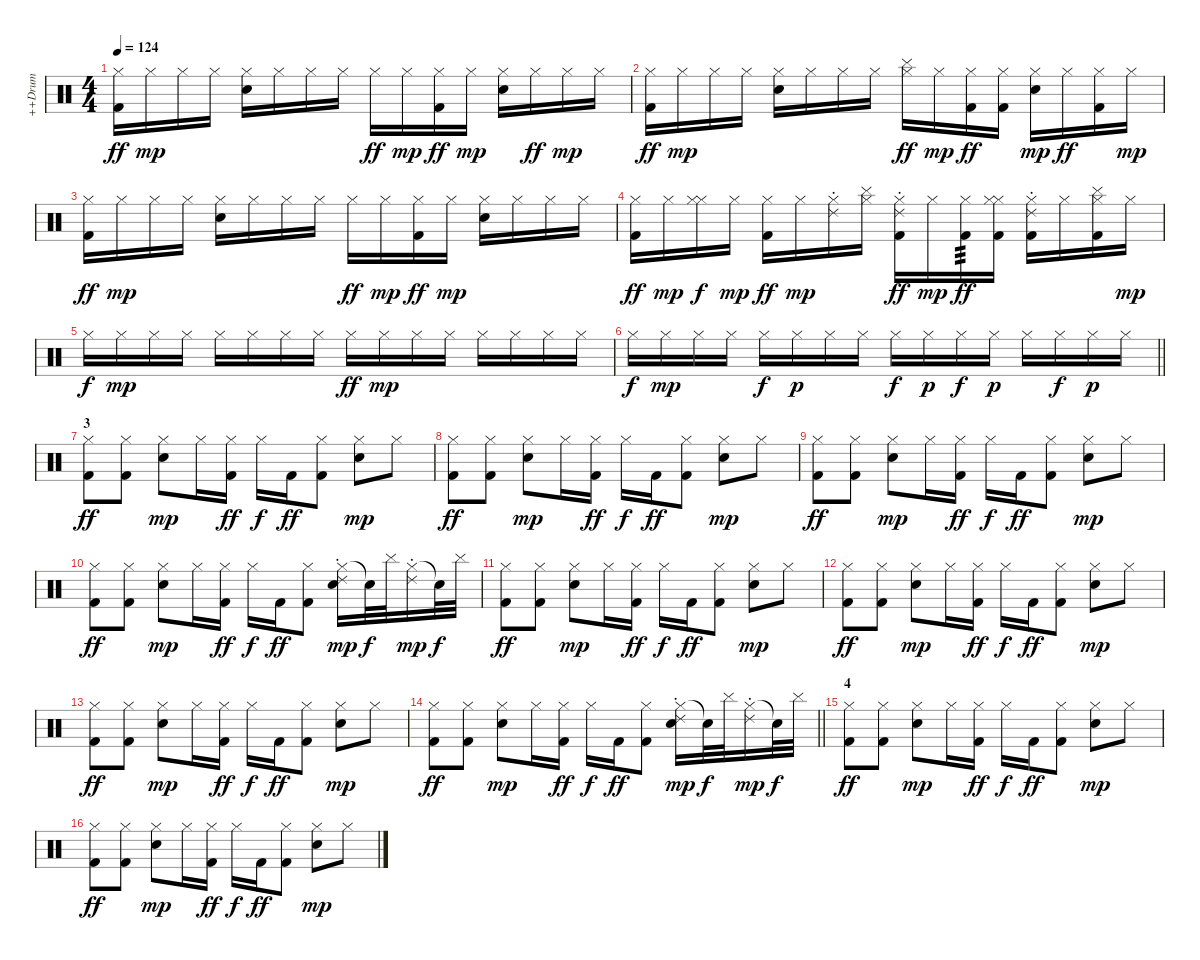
\track ("++Drum" "++Drum") {instrument percussion}
\staff {score}
\articulation defaults
\ts (4 4)
\tempo 124
\clef neutral
\ks c
("Hi-Hat (closed)" "Kick (hit) 2").16{dy ff} "Hi-Hat (closed)".16{dy mp} "Hi-Hat (closed)".16 "Hi-Hat (closed)".16 ("Hi-Hat (closed)" "Electric Snare (hit)").16 "Hi-Hat (closed)".16 "Hi-Hat (closed)".16 "Hi-Hat (closed)".16 "Hi-Hat (closed)".16{dy ff} "Hi-Hat (closed)".16{dy mp} ("Hi-Hat (closed)" "Kick (hit) 2").16{dy ff} "Hi-Hat (closed)".16{dy mp} ("Hi-Hat (closed)" "Electric Snare (hit)").16 "Hi-Hat (closed)".16{dy ff} "Hi-Hat (closed)".16{dy mp} "Hi-Hat (closed)".16 |
("Hi-Hat (closed)" "Kick (hit) 2").16{dy ff} "Hi-Hat (closed)".16{dy mp} "Hi-Hat (closed)".16 "Hi-Hat (closed)".16 ("Hi-Hat (closed)" "Electric Snare (hit)").16 "Hi-Hat (closed)".16 "Hi-Hat (closed)".16 "Hi-Hat (closed)".16 ("Hi-Hat (closed)" "Cymbal (hit)").16{dy ff} "Hi-Hat (closed)".16{dy mp} ("Hi-Hat (closed)" "Kick (hit) 2").16{dy ff} ("Hi-Hat (closed)" "Kick (hit) 2").16 ("Hi-Hat (closed)" "Electric Snare (hit)").16{dy mp} "Hi-Hat (closed)".16{dy ff} ("Hi-Hat (closed)" "Kick (hit) 2").16 "Hi-Hat (closed)".16{dy mp} |
("Hi-Hat (closed)" "Kick (hit) 2").16{dy ff} "Hi-Hat (closed)".16{dy mp} "Hi-Hat (closed)".16 "Hi-Hat (closed)".16 ("Hi-Hat (closed)" "Electric Snare (hit)").16 "Hi-Hat (closed)".16 "Hi-Hat (closed)".16 "Hi-Hat (closed)".16 "Hi-Hat (closed)".16{dy ff} "Hi-Hat (closed)".16{dy mp} ("Hi-Hat (closed)" "Kick (hit) 2").16{dy ff} "Hi-Hat (closed)".16{dy mp} ("Hi-Hat (closed)" "Electric Snare (hit)").16 "Hi-Hat (closed)".16 "Hi-Hat (closed)".16 "Hi-Hat (closed)".16 |
("Hi-Hat (closed)" "Kick (hit) 2").16{dy ff} "Hi-Hat (closed)".16{dy mp} ("Hi-Hat (closed)" "Hi-Hat (closed)").16{dy f} "Hi-Hat (closed)".16{dy mp} ("Hi-Hat (closed)" "Kick (hit) 2").16{dy ff} "Hi-Hat (closed)".16{dy mp} ("Hi-Hat (closed)" "Ride (choke) 2").16 ("Hi-Hat (closed)" "Cymbal (hit)").16 ("Hi-Hat (closed)" "Ride (choke) 2" "Kick (hit) 2").16{dy ff} "Hi-Hat (closed)".16{dy mp} ("Hi-Hat (closed)" "Kick (hit) 2").16{tp 3 dy ff} ("Hi-Hat (closed)" "Hi-Hat (closed)" "Kick (hit) 2").16 ("Hi-Hat (closed)" "Ride (choke) 2" "Kick (hit) 2").16 "Hi-Hat (closed)".16 ("Hi-Hat (closed)" "Cymbal (hit)" "Kick (hit) 2").16 "Hi-Hat (closed)".16{dy mp} |
"Hi-Hat (closed)".16{dy f} "Hi-Hat (closed)".16{dy mp} "Hi-Hat (closed)".16 "Hi-Hat (closed)".16 "Hi-Hat (closed)".16 "Hi-Hat (closed)".16 "Hi-Hat (closed)".16 "Hi-Hat (closed)".16 "Hi-Hat (closed)".16{dy ff} "Hi-Hat (closed)".16{dy mp} "Hi-Hat (closed)".16 "Hi-Hat (closed)".16 "Hi-Hat (closed)".16 "Hi-Hat (closed)".16 "Hi-Hat (closed)".16 "Hi-Hat (closed)".16 |
\barLineRight lightlight "Hi-Hat (closed)".16{dy f} "Hi-Hat (closed)".16{dy mp} "Hi-Hat (closed)".16 "Hi-Hat (closed)".16 "Hi-Hat (closed)".16{dy f} "Hi-Hat (closed)".16{dy p} "Hi-Hat (closed)".16 "Hi-Hat (closed)".16 "Hi-Hat (closed)".16{dy f} "Hi-Hat (closed)".16{dy p} "Hi-Hat (closed)".16{dy f} "Hi-Hat (closed)".16{dy p} "Hi-Hat (closed)".16 "Hi-Hat (closed)".16{dy f} "Hi-Hat (closed)".16{dy p} "Hi-Hat (closed)".16
|
\section ("" "3")
("Hi-Hat (closed)" "Kick (hit) 2").8{dy ff} ("Hi-Hat (closed)" "Kick (hit) 2").8 ("Hi-Hat (closed)" "Electric Snare (hit)").8{dy mp} "Hi-Hat (closed)".16 ("Hi-Hat (closed)" "Kick (hit) 2").16{dy ff} "Hi-Hat (closed)".16{dy f} "Kick (hit) 2".16{dy ff} ("Hi-Hat (closed)" "Kick (hit) 2").8 ("Hi-Hat (closed)" "Electric Snare (hit)").8{dy mp} "Hi-Hat (closed)".8 |
("Hi-Hat (closed)" "Kick (hit) 2").8{dy ff} ("Hi-Hat (closed)" "Kick (hit) 2").8 ("Hi-Hat (closed)" "Electric Snare (hit)").8{dy mp} "Hi-Hat (closed)".16 ("Hi-Hat (closed)" "Kick (hit) 2").16{dy ff} "Hi-Hat (closed)".16{dy f} "Kick (hit) 2".16{dy ff} ("Hi-Hat (closed)" "Kick (hit) 2").8 ("Hi-Hat (closed)" "Electric Snare (hit)").8{dy mp} "Hi-Hat (closed)".8 |
("Hi-Hat (closed)" "Kick (hit) 2").8{dy ff} ("Hi-Hat (closed)" "Kick (hit) 2").8 ("Hi-Hat (closed)" "Electric Snare (hit)").8{dy mp} "Hi-Hat (closed)".16 ("Hi-Hat (closed)" "Kick (hit) 2").16{dy ff} "Hi-Hat (closed)".16{dy f} "Kick (hit) 2".16{dy ff} ("Hi-Hat (closed)" "Kick (hit) 2").8 ("Hi-Hat (closed)" "Electric Snare (hit)").8{dy mp} "Hi-Hat (closed)".8 |
("Hi-Hat (closed)" "Kick (hit) 2").8{dy ff} ("Hi-Hat (closed)" "Kick (hit) 2").8 ("Hi-Hat (closed)" "Electric Snare (hit)").8{dy mp} "Hi-Hat (closed)".16 ("Hi-Hat (closed)" "Kick (hit) 2").16{dy ff} "Hi-Hat (closed)".16{dy f} "Kick (hit) 2".16{dy ff} ("Hi-Hat (closed)" "Kick (hit) 2").8 ("Hi-Hat (closed)" "Ride (choke) 2" "Electric Snare (hit)").16{dy mp} "Snare (hit)"{t}.32{dy f} "Cymbal (hit)".32 ("Hi-Hat (closed)" "Ride (choke) 2").16{dy mp} "Snare (hit)"{t}.32{dy f} "Cymbal (hit)".32 |
("Hi-Hat (closed)" "Kick (hit) 2").8{dy ff} ("Hi-Hat (closed)" "Kick (hit) 2").8 ("Hi-Hat (closed)" "Electric Snare (hit)").8{dy mp} "Hi-Hat (closed)".16 ("Hi-Hat (closed)" "Kick (hit) 2").16{dy ff} "Hi-Hat (closed)".16{dy f} "Kick (hit) 2".16{dy ff} ("Hi-Hat (closed)" "Kick (hit) 2").8 ("Hi-Hat (closed)" "Electric Snare (hit)").8{dy mp} "Hi-Hat (closed)".8 |
("Hi-Hat (closed)" "Kick (hit) 2").8{dy ff} ("Hi-Hat (closed)" "Kick (hit) 2").8 ("Hi-Hat (closed)" "Electric Snare (hit)").8{dy mp} "Hi-Hat (closed)".16 ("Hi-Hat (closed)" "Kick (hit) 2").16{dy ff} "Hi-Hat (closed)".16{dy f} "Kick (hit) 2".16{dy ff} ("Hi-Hat (closed)" "Kick (hit) 2").8 ("Hi-Hat (closed)" "Electric Snare (hit)").8{dy mp} "Hi-Hat (closed)".8 |
("Hi-Hat (closed)" "Kick (hit) 2").8{dy ff} ("Hi-Hat (closed)" "Kick (hit) 2").8 ("Hi-Hat (closed)" "Electric Snare (hit)").8{dy mp} "Hi-Hat (closed)".16 ("Hi-Hat (closed)" "Kick (hit) 2").16{dy ff} "Hi-Hat (closed)".16{dy f} "Kick (hit) 2".16{dy ff} ("Hi-Hat (closed)" "Kick (hit) 2").8 ("Hi-Hat (closed)" "Electric Snare (hit)").8{dy mp} "Hi-Hat (closed)".8 |
\barLineRight lightlight
("Hi-Hat (closed)" "Kick (hit) 2").8{dy ff} ("Hi-Hat (closed)" "Kick (hit) 2").8 ("Hi-Hat (closed)" "Electric Snare (hit)").8{dy mp} "Hi-Hat (closed)".16 ("Hi-Hat (closed)" "Kick (hit) 2").16{dy ff} "Hi-Hat (closed)".16{dy f} "Kick (hit) 2".16{dy ff} ("Hi-Hat (closed)" "Kick (hit) 2").8 ("Hi-Hat (closed)" "Ride (choke) 2" "Electric Snare (hit)").16{dy mp} "Snare (hit)"{t}.32{dy f} "Cymbal (hit)".32 ("Hi-Hat (closed)" "Ride (choke) 2").16{dy mp} "Snare (hit)"{t}.32{dy f} "Cymbal (hit)".32 |
\section ("" "4")
("Hi-Hat (closed)" "Kick (hit) 2").8{dy ff} ("Hi-Hat (closed)" "Kick (hit) 2").8 ("Hi-Hat (closed)" "Electric Snare (hit)").8{dy mp} "Hi-Hat (closed)".16 ("Hi-Hat (closed)" "Kick (hit) 2").16{dy ff} "Hi-Hat (closed)".16{dy f} "Kick (hit) 2".16{dy ff} ("Hi-Hat (closed)" "Kick (hit) 2").8 ("Hi-Hat (closed)" "Electric Snare (hit)").8{dy mp} "Hi-Hat (closed)".8 |
("Hi-Hat (closed)" "Kick (hit) 2").8{dy ff} ("Hi-Hat (closed)" "Kick (hit) 2").8 ("Hi-Hat (closed)" "Electric Snare (hit)").8{dy mp} "Hi-Hat (closed)".16 ("Hi-Hat (closed)" "Kick (hit) 2").16{dy ff} "Hi-Hat (closed)".16{dy f} "Kick (hit) 2".16{dy ff} ("Hi-Hat (closed)" "Kick (hit) 2").8 ("Hi-Hat (closed)" "Electric Snare (hit)").8{dy mp} "Hi-Hat (closed)".8
